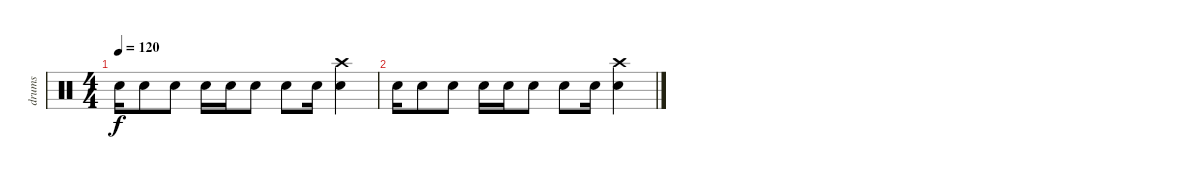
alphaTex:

\track ("drums" "drums") {instrument percussion}
\staff {score}
\articulation defaults
\ts (4 4)
\tempo 120
\clef neutral
\ks c "Electric Snare (hit)".16{dy f} "Electric Snare (hit)".8 "Electric Snare (hit)".8 "Electric Snare (hit)".16 "Electric Snare (hit)".16 "Electric Snare (hit)".8 "Electric Snare (hit)".8 "Electric Snare (hit)".16
("Crash high (hit)" "Electric Snare (hit)").4 |
"Electric Snare (hit)".16 "Electric Snare (hit)".8 "Electric Snare (hit)".8 "Electric Snare (hit)".16 "Electric Snare (hit)".16 "Electric Snare (hit)".8 "Electric Snare (hit)".8 "Electric Snare (hit)".16 ("Crash high (hit)" "Electric Snare (hit)").4
